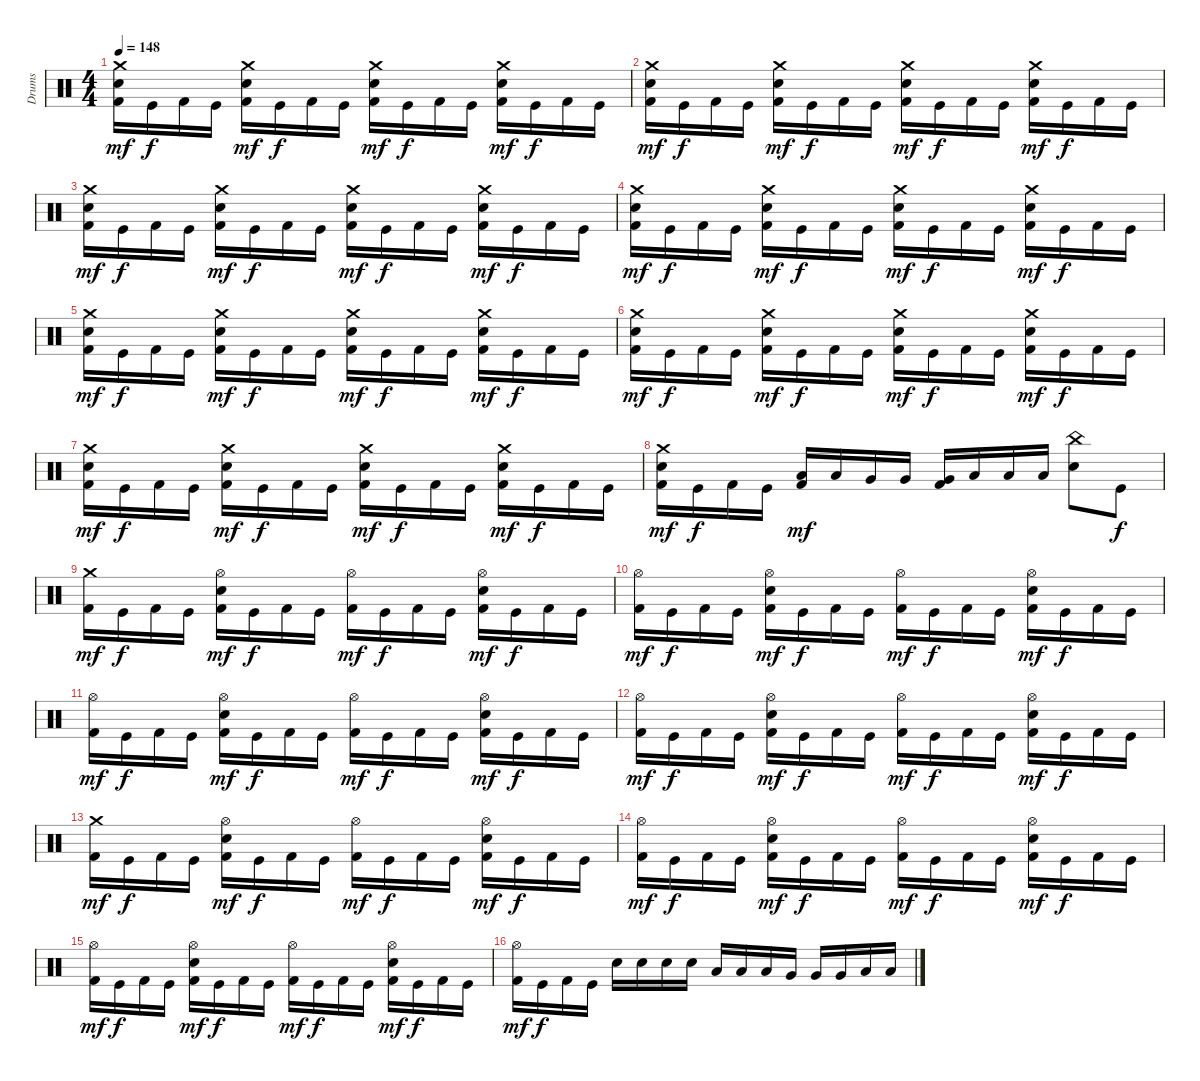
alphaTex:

\track ("Drums" "Drums") {instrument percussion}
\staff
\articulation defaults
\ts (4 4)
\tempo 148
\clef neutral
\ks c
("Crash medium (hit)" "Snare (hit) 2" "Kick (hit) 2").16{dy mf} "Kick (hit)".16{dy f} "Kick (hit) 2".16 "Kick (hit)".16 ("Crash medium (hit)" "Snare (hit) 2" "Kick (hit) 2").16{dy mf} "Kick (hit)".16{dy f} "Kick (hit) 2".16 "Kick (hit)".16 ("Crash medium (hit)" "Snare (hit) 2" "Kick (hit) 2").16{dy mf} "Kick (hit)".16{dy f} "Kick (hit) 2".16 "Kick (hit)".16 ("Crash medium (hit)" "Snare (hit) 2" "Kick (hit) 2").16{dy mf} "Kick (hit)".16{dy f} "Kick (hit) 2".16 "Kick (hit)".16 |
("Crash medium (hit)" "Snare (hit) 2" "Kick (hit) 2").16{dy mf} "Kick (hit)".16{dy f} "Kick (hit) 2".16 "Kick (hit)".16 ("Crash medium (hit)" "Snare (hit) 2" "Kick (hit) 2").16{dy mf} "Kick (hit)".16{dy f} "Kick (hit) 2".16 "Kick (hit)".16 ("Crash medium (hit)" "Snare (hit) 2" "Kick (hit) 2").16{dy mf} "Kick (hit)".16{dy f} "Kick (hit) 2".16 "Kick (hit)".16 ("Crash medium (hit)" "Snare (hit) 2" "Kick (hit) 2").16{dy mf} "Kick (hit)".16{dy f} "Kick (hit) 2".16 "Kick (hit)".16 |
("Crash medium (hit)" "Snare (hit) 2" "Kick (hit) 2").16{dy mf} "Kick (hit)".16{dy f} "Kick (hit) 2".16 "Kick (hit)".16 ("Crash medium (hit)" "Snare (hit) 2" "Kick (hit) 2").16{dy mf} "Kick (hit)".16{dy f} "Kick (hit) 2".16 "Kick (hit)".16 ("Crash medium (hit)" "Snare (hit) 2" "Kick (hit) 2").16{dy mf} "Kick (hit)".16{dy f} "Kick (hit) 2".16 "Kick (hit)".16 ("Crash medium (hit)" "Snare (hit) 2" "Kick (hit) 2").16{dy mf} "Kick (hit)".16{dy f} "Kick (hit) 2".16 "Kick (hit)".16 |
("Crash medium (hit)" "Snare (hit) 2" "Kick (hit) 2").16{dy mf} "Kick (hit)".16{dy f} "Kick (hit) 2".16 "Kick (hit)".16 ("Crash medium (hit)" "Snare (hit) 2" "Kick (hit) 2").16{dy mf} "Kick (hit)".16{dy f} "Kick (hit) 2".16 "Kick (hit)".16 ("Crash medium (hit)" "Snare (hit) 2" "Kick (hit) 2").16{dy mf} "Kick (hit)".16{dy f} "Kick (hit) 2".16 "Kick (hit)".16 ("Crash medium (hit)" "Snare (hit) 2" "Kick (hit) 2").16{dy mf} "Kick (hit)".16{dy f} "Kick (hit) 2".16 "Kick (hit)".16 |
("Crash medium (hit)" "Snare (hit) 2" "Kick (hit) 2").16{dy mf} "Kick (hit)".16{dy f} "Kick (hit) 2".16 "Kick (hit)".16 ("Crash medium (hit)" "Snare (hit) 2" "Kick (hit) 2").16{dy mf} "Kick (hit)".16{dy f} "Kick (hit) 2".16 "Kick (hit)".16 ("Crash medium (hit)" "Snare (hit) 2" "Kick (hit) 2").16{dy mf} "Kick (hit)".16{dy f} "Kick (hit) 2".16 "Kick (hit)".16 ("Crash medium (hit)" "Snare (hit) 2" "Kick (hit) 2").16{dy mf} "Kick (hit)".16{dy f} "Kick (hit) 2".16 "Kick (hit)".16 |
("Crash medium (hit)" "Snare (hit) 2" "Kick (hit) 2").16{dy mf} "Kick (hit)".16{dy f} "Kick (hit) 2".16 "Kick (hit)".16 ("Crash medium (hit)" "Snare (hit) 2" "Kick (hit) 2").16{dy mf} "Kick (hit)".16{dy f} "Kick (hit) 2".16 "Kick (hit)".16 ("Crash medium (hit)" "Snare (hit) 2" "Kick (hit) 2").16{dy mf} "Kick (hit)".16{dy f} "Kick (hit) 2".16 "Kick (hit)".16 ("Crash medium (hit)" "Snare (hit) 2" "Kick (hit) 2").16{dy mf} "Kick (hit)".16{dy f} "Kick (hit) 2".16 "Kick (hit)".16 |
("Crash medium (hit)" "Snare (hit) 2" "Kick (hit) 2").16{dy mf} "Kick (hit)".16{dy f} "Kick (hit) 2".16 "Kick (hit)".16 ("Crash medium (hit)" "Snare (hit) 2" "Kick (hit) 2").16{dy mf} "Kick (hit)".16{dy f} "Kick (hit) 2".16 "Kick (hit)".16 ("Crash medium (hit)" "Snare (hit) 2" "Kick (hit) 2").16{dy mf} "Kick (hit)".16{dy f} "Kick (hit) 2".16 "Kick (hit)".16 ("Crash medium (hit)" "Snare (hit) 2" "Kick (hit) 2").16{dy mf} "Kick (hit)".16{dy f} "Kick (hit) 2".16 "Kick (hit)".16 |
("Crash medium (hit)" "Snare (hit) 2" "Kick (hit) 2").16{dy mf} "Kick (hit)".16{dy f} "Kick (hit) 2".16 "Kick (hit)".16 ("Low Tom (hit)" "Kick (hit) 2").16{dy mf} "Low Tom (hit)".16 "Very Low Tom (hit)".16 "Very Low Tom (hit)".16 ("Very Low Tom (hit)" "Kick (hit) 2").16 "Low Floor Tom (hit)".16 "Low Floor Tom (hit)".16 "Low Floor Tom (hit)".16 ("China (hit)" "Snare (hit) 2").8 "Kick (hit)".8{dy f} |
("Crash medium (hit)" "Kick (hit) 2").16{dy mf} "Kick (hit)".16{dy f} "Kick (hit) 2".16 "Kick (hit)".16 ("Hi-Hat (open)" "Snare (hit) 2" "Kick (hit) 2").16{dy mf} "Kick (hit)".16{dy f} "Kick (hit) 2".16 "Kick (hit)".16 ("Hi-Hat (open)" "Kick (hit) 2").16{dy mf} "Kick (hit)".16{dy f} "Kick (hit) 2".16 "Kick (hit)".16 ("Hi-Hat (open)" "Snare (hit) 2" "Kick (hit) 2").16{dy mf} "Kick (hit)".16{dy f} "Kick (hit) 2".16 "Kick (hit)".16 |
("Hi-Hat (open)" "Kick (hit) 2").16{dy mf} "Kick (hit)".16{dy f} "Kick (hit) 2".16 "Kick (hit)".16 ("Hi-Hat (open)" "Snare (hit) 2" "Kick (hit) 2").16{dy mf} "Kick (hit)".16{dy f} "Kick (hit) 2".16 "Kick (hit)".16 ("Hi-Hat (open)" "Kick (hit) 2").16{dy mf} "Kick (hit)".16{dy f} "Kick (hit) 2".16 "Kick (hit)".16 ("Hi-Hat (open)" "Snare (hit) 2" "Kick (hit) 2").16{dy mf} "Kick (hit)".16{dy f} "Kick (hit) 2".16 "Kick (hit)".16 |
("Hi-Hat (open)" "Kick (hit) 2").16{dy mf} "Kick (hit)".16{dy f} "Kick (hit) 2".16 "Kick (hit)".16 ("Hi-Hat (open)" "Snare (hit) 2" "Kick (hit) 2").16{dy mf} "Kick (hit)".16{dy f} "Kick (hit) 2".16 "Kick (hit)".16 ("Hi-Hat (open)" "Kick (hit) 2").16{dy mf} "Kick (hit)".16{dy f} "Kick (hit) 2".16 "Kick (hit)".16 ("Hi-Hat (open)" "Snare (hit) 2" "Kick (hit) 2").16{dy mf} "Kick (hit)".16{dy f} "Kick (hit) 2".16 "Kick (hit)".16 |
("Hi-Hat (open)" "Kick (hit) 2").16{dy mf} "Kick (hit)".16{dy f} "Kick (hit) 2".16 "Kick (hit)".16 ("Hi-Hat (open)" "Snare (hit) 2" "Kick (hit) 2").16{dy mf} "Kick (hit)".16{dy f} "Kick (hit) 2".16 "Kick (hit)".16 ("Hi-Hat (open)" "Kick (hit) 2").16{dy mf} "Kick (hit)".16{dy f} "Kick (hit) 2".16 "Kick (hit)".16 ("Hi-Hat (open)" "Snare (hit) 2" "Kick (hit) 2").16{dy mf} "Kick (hit)".16{dy f} "Kick (hit) 2".16 "Kick (hit)".16 |
("Crash medium (hit)" "Kick (hit) 2").16{dy mf} "Kick (hit)".16{dy f} "Kick (hit) 2".16 "Kick (hit)".16 ("Hi-Hat (open)" "Snare (hit) 2" "Kick (hit) 2").16{dy mf} "Kick (hit)".16{dy f} "Kick (hit) 2".16 "Kick (hit)".16 ("Hi-Hat (open)" "Kick (hit) 2").16{dy mf} "Kick (hit)".16{dy f} "Kick (hit) 2".16 "Kick (hit)".16 ("Hi-Hat (open)" "Snare (hit) 2" "Kick (hit) 2").16{dy mf} "Kick (hit)".16{dy f} "Kick (hit) 2".16 "Kick (hit)".16 |
("Hi-Hat (open)" "Kick (hit) 2").16{dy mf} "Kick (hit)".16{dy f} "Kick (hit) 2".16 "Kick (hit)".16 ("Hi-Hat (open)" "Snare (hit) 2" "Kick (hit) 2").16{dy mf} "Kick (hit)".16{dy f} "Kick (hit) 2".16 "Kick (hit)".16 ("Hi-Hat (open)" "Kick (hit) 2").16{dy mf} "Kick (hit)".16{dy f} "Kick (hit) 2".16 "Kick (hit)".16 ("Hi-Hat (open)" "Snare (hit) 2" "Kick (hit) 2").16{dy mf} "Kick (hit)".16{dy f} "Kick (hit) 2".16 "Kick (hit)".16 |
("Hi-Hat (open)" "Kick (hit) 2").16{dy mf} "Kick (hit)".16{dy f} "Kick (hit) 2".16 "Kick (hit)".16 ("Hi-Hat (open)" "Snare (hit) 2" "Kick (hit) 2").16{dy mf} "Kick (hit)".16{dy f} "Kick (hit) 2".16 "Kick (hit)".16 ("Hi-Hat (open)" "Kick (hit) 2").16{dy mf} "Kick (hit)".16{dy f} "Kick (hit) 2".16 "Kick (hit)".16 ("Hi-Hat (open)" "Snare (hit) 2" "Kick (hit) 2").16{dy mf} "Kick (hit)".16{dy f} "Kick (hit) 2".16 "Kick (hit)".16 |
("Hi-Hat (open)" "Kick (hit) 2").16{dy mf} "Kick (hit)".16{dy f} "Kick (hit) 2".16 "Kick (hit)".16 "Snare (hit) 2".16 "Snare (hit) 2".16 "Snare (hit) 2".16 "Snare (hit) 2".16 "Low Tom (hit)".16 "Low Tom (hit)".16 "Low Tom (hit)".16 "Very Low Tom (hit)".16 "Very Low Tom (hit)".16 "Very Low Tom (hit)".16 "Low Floor Tom (hit)".16 "Low Floor Tom (hit)".16
